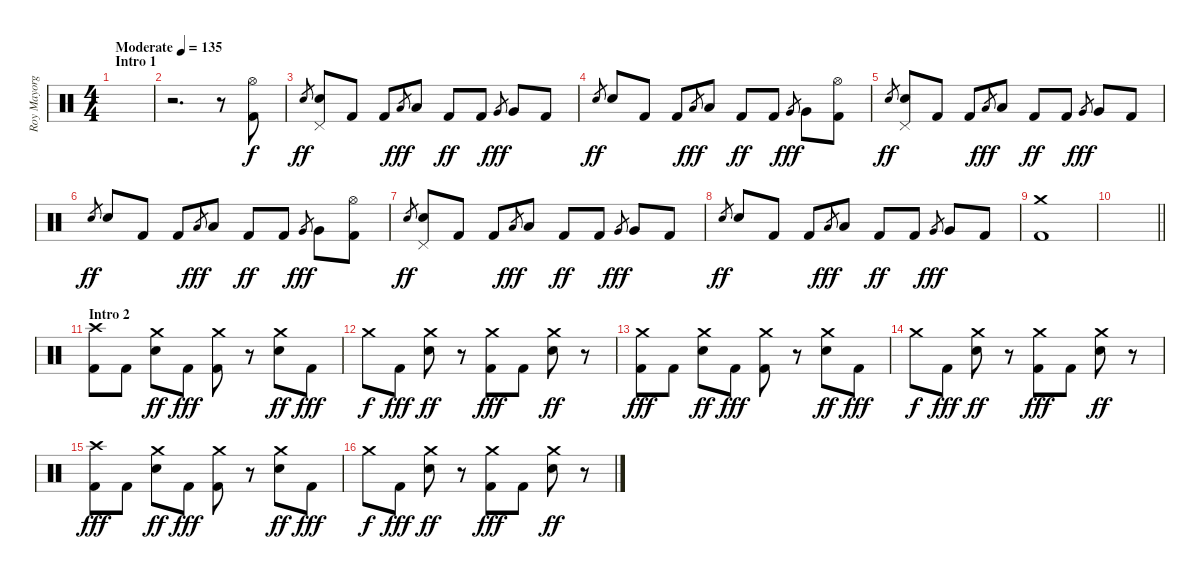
\track ("Roy Mayorga" "Roy Mayorg") {instrument percussion}
\staff {score}
\articulation defaults
\ts (4 4)
\section ("" "Intro 1")
\tempo (135 "Moderate")
\clef neutral
\ks c
|
r.2{d} r.8 ("Hi-Hat (open)" "Kick (hit) 2").8 |
"Electric Snare (hit)".8{gr dy ff} ("Electric Snare (hit)" "Pedal Hi-Hat (hit)").8 "Kick (hit) 2".8 "Kick (hit) 2".8 "Low Tom (hit)".8{gr dy fff} "Low Tom (hit)".8 "Kick (hit) 2".8{dy ff} "Kick (hit) 2".8 "Very Low Tom (hit)".8{gr dy fff} "Very Low Tom (hit)".8 "Kick (hit) 2".8 |
"Electric Snare (hit)".8{gr dy ff} "Electric Snare (hit)".8 "Kick (hit) 2".8 "Kick (hit) 2".8 "Low Tom (hit)".8{gr dy fff} "Low Tom (hit)".8 "Kick (hit) 2".8{dy ff} "Kick (hit) 2".8 "Very Low Tom (hit)".8{gr dy fff} "Very Low Tom (hit)".8 ("Hi-Hat (open)" "Kick (hit) 2").8 |
"Electric Snare (hit)".8{gr dy ff} ("Electric Snare (hit)" "Pedal Hi-Hat (hit)").8 "Kick (hit) 2".8 "Kick (hit) 2".8 "Low Tom (hit)".8{gr dy fff} "Low Tom (hit)".8 "Kick (hit) 2".8{dy ff} "Kick (hit) 2".8 "Very Low Tom (hit)".8{gr dy fff} "Very Low Tom (hit)".8 "Kick (hit) 2".8 |
"Electric Snare (hit)".8{gr dy ff} "Electric Snare (hit)".8 "Kick (hit) 2".8 "Kick (hit) 2".8 "Low Tom (hit)".8{gr dy fff} "Low Tom (hit)".8 "Kick (hit) 2".8{dy ff} "Kick (hit) 2".8 "Very Low Tom (hit)".8{gr dy fff} "Very Low Tom (hit)".8 ("Hi-Hat (open)" "Kick (hit) 2").8 |
"Electric Snare (hit)".8{gr dy ff} ("Electric Snare (hit)" "Pedal Hi-Hat (hit)").8 "Kick (hit) 2".8 "Kick (hit) 2".8 "Low Tom (hit)".8{gr dy fff} "Low Tom (hit)".8 "Kick (hit) 2".8{dy ff} "Kick (hit) 2".8 "Very Low Tom (hit)".8{gr dy fff} "Very Low Tom (hit)".8 "Kick (hit) 2".8 |
"Electric Snare (hit)".8{gr dy ff} "Electric Snare (hit)".8 "Kick (hit) 2".8 "Kick (hit) 2".8 "Low Tom (hit)".8{gr dy fff} "Low Tom (hit)".8 "Kick (hit) 2".8{dy ff} "Kick (hit) 2".8 "Very Low Tom (hit)".8{gr dy fff} "Very Low Tom (hit)".8 "Kick (hit) 2".8 |
("Crash medium (hit)" "Kick (hit) 2").1 |
\barLineRight lightlight
|
\section ("" "Intro 2")
("Crash high (hit)" "Kick (hit) 2").8 "Kick (hit) 2".8 ("Crash medium (hit)" "Electric Snare (hit)").8{dy ff} "Kick (hit) 2".8{dy fff} ("Crash medium (hit)" "Kick (hit) 2").8 r.8 ("Crash medium (hit)" "Electric Snare (hit)").8{dy ff} "Kick (hit) 2".8{dy fff} |
"Crash medium (hit)".8{dy f} "Kick (hit) 2".8{dy fff} ("Crash medium (hit)" "Electric Snare (hit)").8{dy ff} r.8 ("Crash medium (hit)" "Kick (hit) 2").8{dy fff} "Kick (hit) 2".8 ("Crash medium (hit)" "Electric Snare (hit)").8{dy ff} r.8 |
("Crash medium (hit)" "Kick (hit) 2").8{dy fff} "Kick (hit) 2".8 ("Crash medium (hit)" "Electric Snare (hit)").8{dy ff} "Kick (hit) 2".8{dy fff} ("Crash medium (hit)" "Kick (hit) 2").8 r.8 ("Crash medium (hit)" "Electric Snare (hit)").8{dy ff} "Kick (hit) 2".8{dy fff} |
"Crash medium (hit)".8{dy f} "Kick (hit) 2".8{dy fff} ("Crash medium (hit)" "Electric Snare (hit)").8{dy ff} r.8 ("Crash medium (hit)" "Kick (hit) 2").8{dy fff} "Kick (hit) 2".8 ("Crash medium (hit)" "Electric Snare (hit)").8{dy ff} r.8 |
("Crash high (hit)" "Kick (hit) 2").8{dy fff} "Kick (hit) 2".8 ("Crash medium (hit)" "Electric Snare (hit)").8{dy ff} "Kick (hit) 2".8{dy fff} ("Crash medium (hit)" "Kick (hit) 2").8 r.8 ("Crash medium (hit)" "Electric Snare (hit)").8{dy ff} "Kick (hit) 2".8{dy fff} |
"Crash medium (hit)".8{dy f} "Kick (hit) 2".8{dy fff} ("Crash medium (hit)" "Electric Snare (hit)").8{dy ff} r.8 ("Crash medium (hit)" "Kick (hit) 2").8{dy fff} "Kick (hit) 2".8 ("Crash medium (hit)" "Electric Snare (hit)").8{dy ff} r.8
